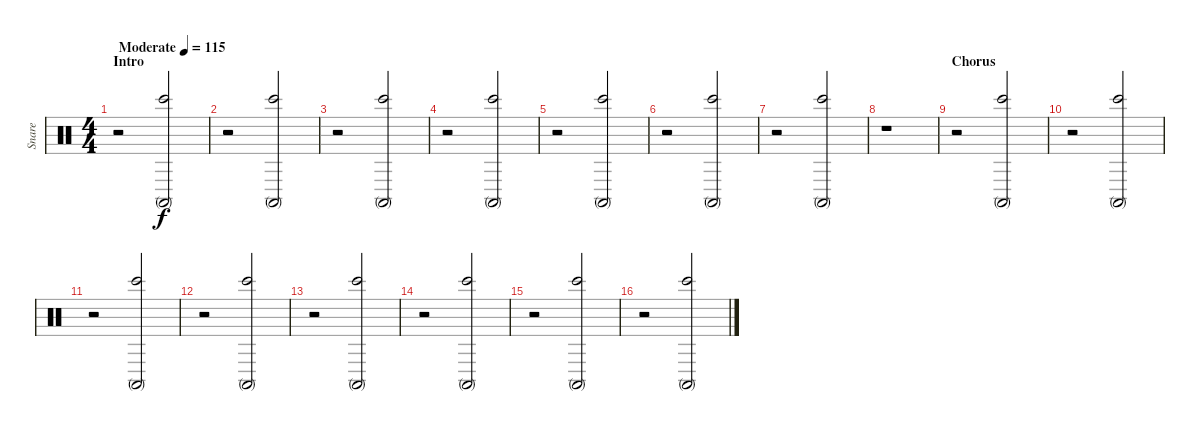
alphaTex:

\track ("Snare" "Snare") {instrument percussion}
\staff {score}
\articulation defaults
\ts (4 4)
\section ("" "Intro")
\tempo (115 "Moderate")
\clef neutral
\ks c
r.2{dy f} ("Conga high (mute)" "Bongo High (hit)").2 |
r.2 ("Conga high (mute)" "Bongo High (hit)").2 |
r.2 ("Conga high (mute)" "Bongo High (hit)").2 |
r.2 ("Conga high (mute)" "Bongo High (hit)").2 |
r.2 ("Conga high (mute)" "Bongo High (hit)").2 |
r.2 ("Conga high (mute)" "Bongo High (hit)").2 |
r.2 ("Conga high (mute)" "Bongo High (hit)").2 |
r.1 |
\section ("" "Chorus")
r.2 ("Conga high (mute)" "Bongo High (hit)").2 |
r.2 ("Conga high (mute)" "Bongo High (hit)").2 |
r.2 ("Conga high (mute)" "Bongo High (hit)").2 |
r.2 ("Conga high (mute)" "Bongo High (hit)").2 |
r.2 ("Conga high (mute)" "Bongo High (hit)").2 |
r.2 ("Conga high (mute)" "Bongo High (hit)").2 |
r.2 ("Conga high (mute)" "Bongo High (hit)").2 |
r.2 ("Conga high (mute)" "Bongo High (hit)").2
